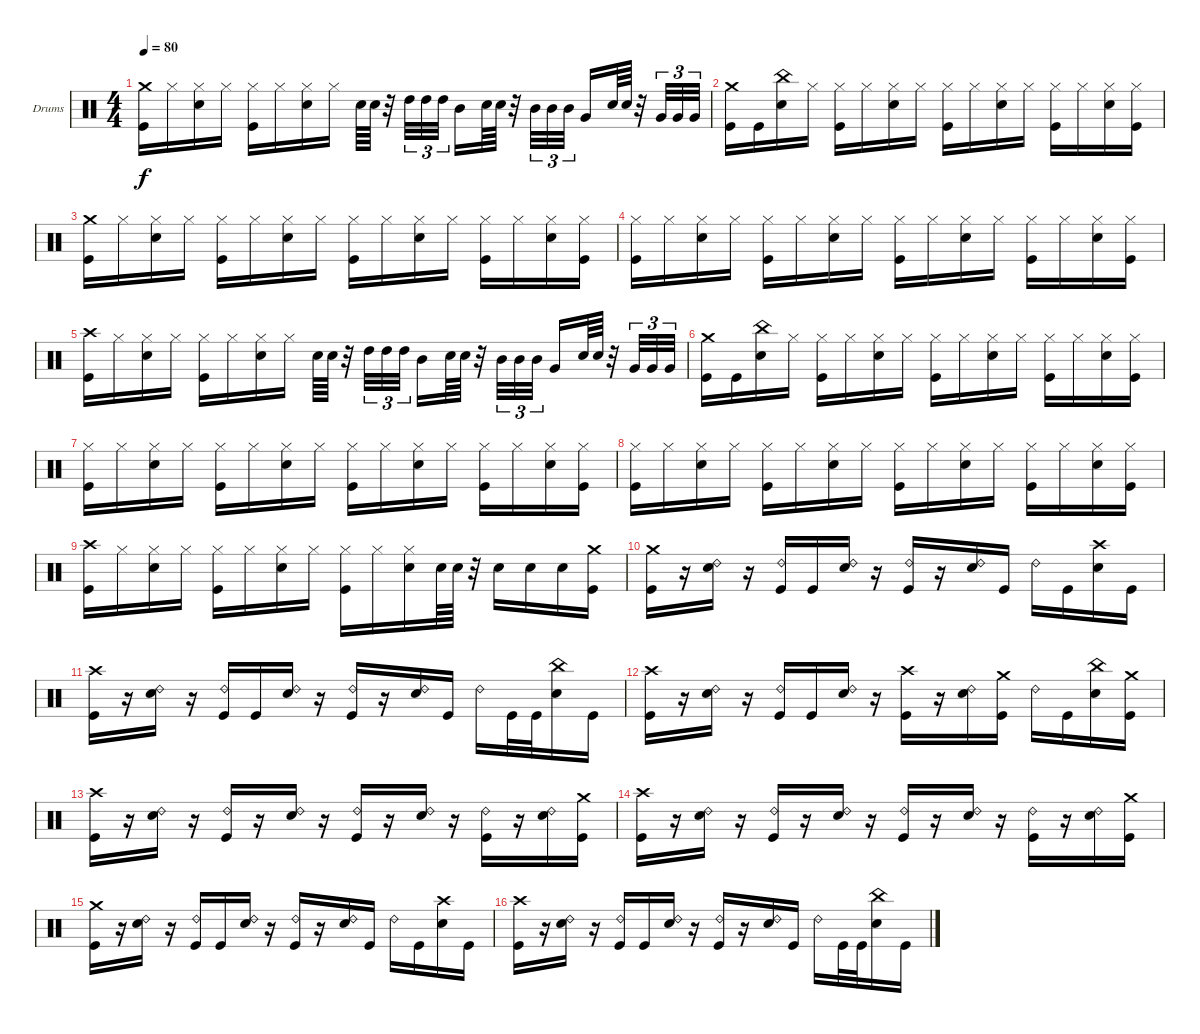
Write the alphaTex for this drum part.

\defaultSystemsLayout 4
\bracketExtendMode groupsimilarinstruments
\firstSystemTrackNameOrientation horizontal
\otherSystemsTrackNameOrientation horizontal
\track ("Francesco Jovino" "Drums") {instrument percussion}
\staff {score}
\articulation defaults
\ts (4 4)
\tempo 80
\clef neutral
\ks c
("Kick (hit)" "Crash medium (hit)").16{dy f} "Hi-Hat (closed)".16 ("Snare (hit) 2" "Hi-Hat (closed)").16 "Hi-Hat (closed)".16 ("Kick (hit)" "Hi-Hat (closed)").16 "Hi-Hat (closed)".16 ("Snare (hit) 2" "Hi-Hat (closed)").16 "Hi-Hat (closed)".16 "Snare (hit) 2".64 "Snare (hit) 2".64 r.32 "High Tom (hit)".32{tu (3 2)} "High Tom (hit)".32{tu (3 2)} "High Tom (hit)".32{tu (3 2)} "Mid Tom (hit)".16 "Snare (hit) 2".64 "Snare (hit) 2".64 r.32 "Mid Tom (hit)".32{tu (3 2)} "Mid Tom (hit)".32{tu (3 2)} "Mid Tom (hit)".32{tu (3 2)} "Very Low Tom (hit)".16 "Snare (hit) 2".64 "Snare (hit) 2".64 r.32 "Very Low Tom (hit)".32{tu (3 2)} "Very Low Tom (hit)".32{tu (3 2)} "Very Low Tom (hit)".32{tu (3 2)} |
("Kick (hit)" "Crash medium (hit)").16 "Kick (hit)".16 ("Snare (hit) 2" "China (hit)").16 "Hi-Hat (closed)".16 ("Kick (hit)" "Hi-Hat (closed)").16 "Hi-Hat (closed)".16 ("Snare (hit) 2" "Hi-Hat (closed)").16 "Hi-Hat (closed)".16 ("Kick (hit)" "Hi-Hat (closed)").16 "Hi-Hat (closed)".16 ("Snare (hit) 2" "Hi-Hat (closed)").16 "Hi-Hat (closed)".16 ("Kick (hit)" "Hi-Hat (closed)").16 "Hi-Hat (closed)".16 ("Snare (hit) 2" "Hi-Hat (closed)").16 ("Kick (hit)" "Hi-Hat (closed)").16 |
("Kick (hit)" "Crash medium (hit)").16 "Hi-Hat (closed)".16 ("Snare (hit) 2" "Hi-Hat (closed)").16 "Hi-Hat (closed)".16 ("Kick (hit)" "Hi-Hat (closed)").16 "Hi-Hat (closed)".16 ("Snare (hit) 2" "Hi-Hat (closed)").16 "Hi-Hat (closed)".16 ("Kick (hit)" "Hi-Hat (closed)").16 "Hi-Hat (closed)".16 ("Snare (hit) 2" "Hi-Hat (closed)").16 "Hi-Hat (closed)".16 ("Kick (hit)" "Hi-Hat (closed)").16 "Hi-Hat (closed)".16 ("Snare (hit) 2" "Hi-Hat (closed)").16 ("Kick (hit)" "Hi-Hat (closed)").16 |
("Kick (hit)" "Hi-Hat (closed)").16 "Hi-Hat (closed)".16 ("Snare (hit) 2" "Hi-Hat (closed)").16 "Hi-Hat (closed)".16 ("Kick (hit)" "Hi-Hat (closed)").16 "Hi-Hat (closed)".16 ("Snare (hit) 2" "Hi-Hat (closed)").16 "Hi-Hat (closed)".16 ("Kick (hit)" "Hi-Hat (closed)").16 "Hi-Hat (closed)".16 ("Snare (hit) 2" "Hi-Hat (closed)").16 "Hi-Hat (closed)".16 ("Kick (hit)" "Hi-Hat (closed)").16 "Hi-Hat (closed)".16 ("Snare (hit) 2" "Hi-Hat (closed)").16 ("Kick (hit)" "Hi-Hat (closed)").16 |
("Kick (hit)" "Crash high (hit)").16 "Hi-Hat (closed)".16 ("Snare (hit) 2" "Hi-Hat (closed)").16 "Hi-Hat (closed)".16 ("Kick (hit)" "Hi-Hat (closed)").16 "Hi-Hat (closed)".16 ("Snare (hit) 2" "Hi-Hat (closed)").16 "Hi-Hat (closed)".16 "Snare (hit) 2".64 "Snare (hit) 2".64 r.32 "High Tom (hit)".32{tu (3 2)} "High Tom (hit)".32{tu (3 2)} "High Tom (hit)".32{tu (3 2)} "Mid Tom (hit)".16 "Snare (hit) 2".64 "Snare (hit) 2".64 r.32 "Mid Tom (hit)".32{tu (3 2)} "Mid Tom (hit)".32{tu (3 2)} "Mid Tom (hit)".32{tu (3 2)} "Very Low Tom (hit)".16 "Snare (hit) 2".64 "Snare (hit) 2".64 r.32 "Very Low Tom (hit)".32{tu (3 2)} "Very Low Tom (hit)".32{tu (3 2)} "Very Low Tom (hit)".32{tu (3 2)} |
("Kick (hit)" "Crash medium (hit)").16 "Kick (hit)".16 ("Snare (hit) 2" "China (hit)").16 "Hi-Hat (closed)".16 ("Kick (hit)" "Hi-Hat (closed)").16 "Hi-Hat (closed)".16 ("Snare (hit) 2" "Hi-Hat (closed)").16 "Hi-Hat (closed)".16 ("Kick (hit)" "Hi-Hat (closed)").16 "Hi-Hat (closed)".16 ("Snare (hit) 2" "Hi-Hat (closed)").16 "Hi-Hat (closed)".16 ("Kick (hit)" "Hi-Hat (closed)").16 "Hi-Hat (closed)".16 ("Snare (hit) 2" "Hi-Hat (closed)").16 ("Kick (hit)" "Hi-Hat (closed)").16 |
("Kick (hit)" "Hi-Hat (closed)").16 "Hi-Hat (closed)".16 ("Snare (hit) 2" "Hi-Hat (closed)").16 "Hi-Hat (closed)".16 ("Kick (hit)" "Hi-Hat (closed)").16 "Hi-Hat (closed)".16 ("Snare (hit) 2" "Hi-Hat (closed)").16 "Hi-Hat (closed)".16 ("Kick (hit)" "Hi-Hat (closed)").16 "Hi-Hat (closed)".16 ("Snare (hit) 2" "Hi-Hat (closed)").16 "Hi-Hat (closed)".16 ("Kick (hit)" "Hi-Hat (closed)").16 "Hi-Hat (closed)".16 ("Snare (hit) 2" "Hi-Hat (closed)").16 ("Kick (hit)" "Hi-Hat (closed)").16 |
("Kick (hit)" "Hi-Hat (closed)").16 "Hi-Hat (closed)".16 ("Snare (hit) 2" "Hi-Hat (closed)").16 "Hi-Hat (closed)".16 ("Kick (hit)" "Hi-Hat (closed)").16 "Hi-Hat (closed)".16 ("Snare (hit) 2" "Hi-Hat (closed)").16 "Hi-Hat (closed)".16 ("Kick (hit)" "Hi-Hat (closed)").16 "Hi-Hat (closed)".16 ("Snare (hit) 2" "Hi-Hat (closed)").16 "Hi-Hat (closed)".16 ("Kick (hit)" "Hi-Hat (closed)").16 "Hi-Hat (closed)".16 ("Snare (hit) 2" "Hi-Hat (closed)").16 ("Kick (hit)" "Hi-Hat (closed)").16 |
("Kick (hit)" "Crash high (hit)").16 "Hi-Hat (closed)".16 ("Snare (hit) 2" "Hi-Hat (closed)").16 "Hi-Hat (closed)".16 ("Kick (hit)" "Hi-Hat (closed)").16 "Hi-Hat (closed)".16 ("Snare (hit) 2" "Hi-Hat (closed)").16 "Hi-Hat (closed)".16 ("Hi-Hat (closed)" "Kick (hit)").16 "Hi-Hat (closed)".16 ("Snare (hit) 2" "Hi-Hat (closed)").16 "Snare (hit) 2".64 "Snare (hit) 2".64 r.32 "Snare (hit) 2".16 "Snare (hit) 2".16 "Snare (hit) 2".16 ("Kick (hit)" "Crash medium (hit)").16 |
("Kick (hit)" "Crash medium (hit)").16 r.16 ("Snare (hit) 2" "Ride (bell) 2").16 r.16 ("Kick (hit)" "Ride (bell) 2").16 "Kick (hit)".16 ("Snare (hit) 2" "Ride (bell) 2").16 r.16 ("Kick (hit)" "Ride (bell) 2").16 r.16 ("Ride (bell) 2" "Snare (hit) 2").16 "Kick (hit)".16 "Ride (bell) 2".16 "Kick (hit)".16 ("Snare (hit) 2" "Crash high (hit)").16 "Kick (hit)".16 |
("Kick (hit)" "Crash high (hit)").16 r.16 ("Snare (hit) 2" "Ride (bell) 2").16 r.16 ("Kick (hit)" "Ride (bell) 2").16 "Kick (hit)".16 ("Snare (hit) 2" "Ride (bell) 2").16 r.16 ("Kick (hit)" "Ride (bell) 2").16 r.16 ("Ride (bell) 2" "Snare (hit) 2").16 "Kick (hit)".16 "Ride (bell) 2".16 "Kick (hit)".32 "Kick (hit)".32 ("Snare (hit) 2" "China (hit)").16 "Kick (hit)".16 |
("Kick (hit)" "Crash high (hit)").16 r.16 ("Snare (hit) 2" "Ride (bell) 2").16 r.16 ("Kick (hit)" "Ride (bell) 2").16 "Kick (hit)".16 ("Snare (hit) 2" "Ride (bell) 2").16 r.16 ("Kick (hit)" "Crash high (hit)").16 r.16 ("Ride (bell) 2" "Snare (hit) 2").16 ("Kick (hit)" "Crash medium (hit)").16 "Ride (bell) 2".16 "Kick (hit)".16 ("Snare (hit) 2" "China (hit)").16 ("Kick (hit)" "Crash medium (hit)").16 |
("Kick (hit)" "Crash high (hit)").16 r.16 ("Snare (hit) 2" "Ride (bell) 2").16 r.16 ("Kick (hit)" "Ride (bell) 2").16 r.16 ("Snare (hit) 2" "Ride (bell) 2").16 r.16 ("Kick (hit)" "Ride (bell) 2").16 r.16 ("Snare (hit) 2" "Ride (bell) 2").16 r.16 ("Kick (hit)" "Ride (bell) 2").16 r.16 ("Snare (hit) 2" "Ride (bell) 2").16 ("Kick (hit)" "Crash medium (hit)").16 |
("Kick (hit)" "Crash high (hit)").16 r.16 ("Snare (hit) 2" "Ride (bell) 2").16 r.16 ("Kick (hit)" "Ride (bell) 2").16 r.16 ("Snare (hit) 2" "Ride (bell) 2").16 r.16 ("Kick (hit)" "Ride (bell) 2").16 r.16 ("Snare (hit) 2" "Ride (bell) 2").16 r.16 ("Kick (hit)" "Ride (bell) 2").16 r.16 ("Snare (hit) 2" "Ride (bell) 2").16 ("Kick (hit)" "Crash medium (hit)").16 |
("Kick (hit)" "Crash medium (hit)").16 r.16 ("Snare (hit) 2" "Ride (bell) 2").16 r.16 ("Kick (hit)" "Ride (bell) 2").16 "Kick (hit)".16 ("Snare (hit) 2" "Ride (bell) 2").16 r.16 ("Kick (hit)" "Ride (bell) 2").16 r.16 ("Ride (bell) 2" "Snare (hit) 2").16 "Kick (hit)".16 "Ride (bell) 2".16 "Kick (hit)".16 ("Snare (hit) 2" "Crash high (hit)").16 "Kick (hit)".16 |
("Kick (hit)" "Crash high (hit)").16 r.16 ("Snare (hit) 2" "Ride (bell) 2").16 r.16 ("Kick (hit)" "Ride (bell) 2").16 "Kick (hit)".16 ("Snare (hit) 2" "Ride (bell) 2").16 r.16 ("Kick (hit)" "Ride (bell) 2").16 r.16 ("Ride (bell) 2" "Snare (hit) 2").16 "Kick (hit)".16 "Ride (bell) 2".16 "Kick (hit)".32 "Kick (hit)".32 ("Snare (hit) 2" "China (hit)").16 "Kick (hit)".16
